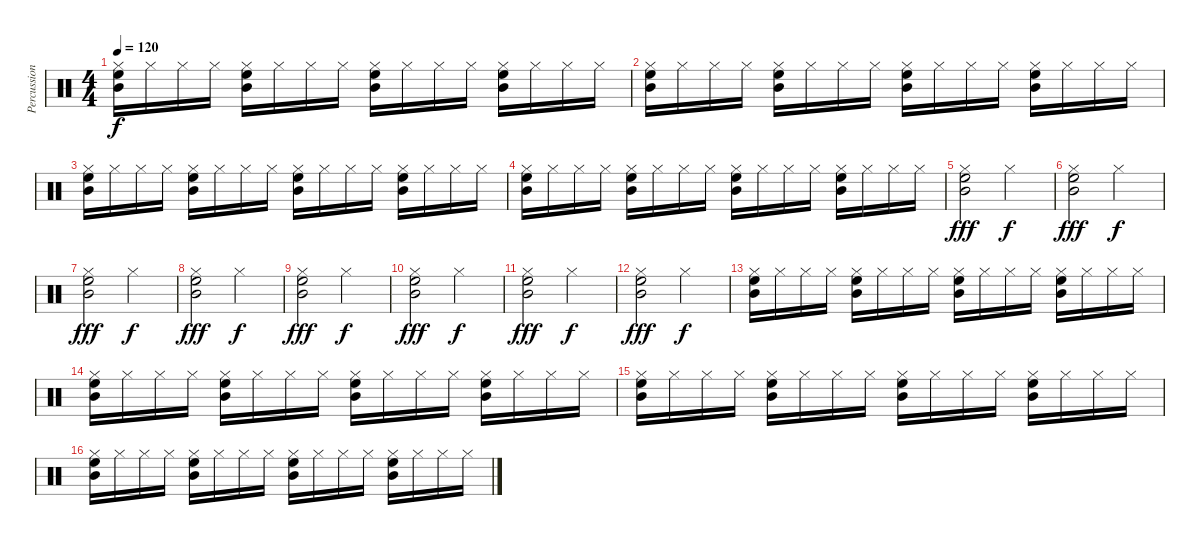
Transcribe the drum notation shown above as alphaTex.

\track ("Percussion" "Percussion") {instrument percussion}
\staff {score}
\articulation defaults
\ts (4 4)
\tempo 120
\clef neutral
\ks c
("Hi-Hat (closed)" "Mid Tom (hit)" "High Floor Tom (hit)").16{dy f} "Hi-Hat (closed)".16 "Hi-Hat (closed)".16 "Hi-Hat (closed)".16 ("Hi-Hat (closed)" "Mid Tom (hit)" "High Floor Tom (hit)").16 "Hi-Hat (closed)".16 "Hi-Hat (closed)".16 "Hi-Hat (closed)".16 ("Hi-Hat (closed)" "Mid Tom (hit)" "High Floor Tom (hit)").16 "Hi-Hat (closed)".16 "Hi-Hat (closed)".16 "Hi-Hat (closed)".16 ("Hi-Hat (closed)" "Mid Tom (hit)" "High Floor Tom (hit)").16 "Hi-Hat (closed)".16 "Hi-Hat (closed)".16 "Hi-Hat (closed)".16 |
("Hi-Hat (closed)" "Mid Tom (hit)" "High Floor Tom (hit)").16 "Hi-Hat (closed)".16 "Hi-Hat (closed)".16 "Hi-Hat (closed)".16 ("Hi-Hat (closed)" "Mid Tom (hit)" "High Floor Tom (hit)").16 "Hi-Hat (closed)".16 "Hi-Hat (closed)".16 "Hi-Hat (closed)".16 ("Hi-Hat (closed)" "Mid Tom (hit)" "High Floor Tom (hit)").16 "Hi-Hat (closed)".16 "Hi-Hat (closed)".16 "Hi-Hat (closed)".16 ("Hi-Hat (closed)" "Mid Tom (hit)" "High Floor Tom (hit)").16 "Hi-Hat (closed)".16 "Hi-Hat (closed)".16 "Hi-Hat (closed)".16 |
("Hi-Hat (closed)" "Mid Tom (hit)" "High Floor Tom (hit)").16 "Hi-Hat (closed)".16 "Hi-Hat (closed)".16 "Hi-Hat (closed)".16 ("Hi-Hat (closed)" "Mid Tom (hit)" "High Floor Tom (hit)").16 "Hi-Hat (closed)".16 "Hi-Hat (closed)".16 "Hi-Hat (closed)".16 ("Hi-Hat (closed)" "Mid Tom (hit)" "High Floor Tom (hit)").16 "Hi-Hat (closed)".16 "Hi-Hat (closed)".16 "Hi-Hat (closed)".16 ("Hi-Hat (closed)" "Mid Tom (hit)" "High Floor Tom (hit)").16 "Hi-Hat (closed)".16 "Hi-Hat (closed)".16 "Hi-Hat (closed)".16 |
("Hi-Hat (closed)" "Mid Tom (hit)" "High Floor Tom (hit)").16 "Hi-Hat (closed)".16 "Hi-Hat (closed)".16 "Hi-Hat (closed)".16 ("Hi-Hat (closed)" "Mid Tom (hit)" "High Floor Tom (hit)").16 "Hi-Hat (closed)".16 "Hi-Hat (closed)".16 "Hi-Hat (closed)".16 ("Hi-Hat (closed)" "Mid Tom (hit)" "High Floor Tom (hit)").16 "Hi-Hat (closed)".16 "Hi-Hat (closed)".16 "Hi-Hat (closed)".16 ("Hi-Hat (closed)" "Mid Tom (hit)" "High Floor Tom (hit)").16 "Hi-Hat (closed)".16 "Hi-Hat (closed)".16 "Hi-Hat (closed)".16 |
("Hi-Hat (closed)" "Mid Tom (hit)" "High Floor Tom (hit)").2{dy fff} "Hi-Hat (closed)".2{dy f} |
("Hi-Hat (closed)" "Mid Tom (hit)" "High Floor Tom (hit)").2{dy fff} "Hi-Hat (closed)".2{dy f} |
("Hi-Hat (closed)" "Mid Tom (hit)" "High Floor Tom (hit)").2{dy fff} "Hi-Hat (closed)".2{dy f} |
("Hi-Hat (closed)" "Mid Tom (hit)" "High Floor Tom (hit)").2{dy fff} "Hi-Hat (closed)".2{dy f} |
("Hi-Hat (closed)" "Mid Tom (hit)" "High Floor Tom (hit)").2{dy fff} "Hi-Hat (closed)".2{dy f} |
("Hi-Hat (closed)" "Mid Tom (hit)" "High Floor Tom (hit)").2{dy fff} "Hi-Hat (closed)".2{dy f} |
("Hi-Hat (closed)" "Mid Tom (hit)" "High Floor Tom (hit)").2{dy fff} "Hi-Hat (closed)".2{dy f} |
("Hi-Hat (closed)" "Mid Tom (hit)" "High Floor Tom (hit)").2{dy fff} "Hi-Hat (closed)".2{dy f} |
("Hi-Hat (closed)" "Mid Tom (hit)" "High Floor Tom (hit)").16 "Hi-Hat (closed)".16 "Hi-Hat (closed)".16 "Hi-Hat (closed)".16 ("Hi-Hat (closed)" "Mid Tom (hit)" "High Floor Tom (hit)").16 "Hi-Hat (closed)".16 "Hi-Hat (closed)".16 "Hi-Hat (closed)".16 ("Hi-Hat (closed)" "Mid Tom (hit)" "High Floor Tom (hit)").16 "Hi-Hat (closed)".16 "Hi-Hat (closed)".16 "Hi-Hat (closed)".16 ("Hi-Hat (closed)" "Mid Tom (hit)" "High Floor Tom (hit)").16 "Hi-Hat (closed)".16 "Hi-Hat (closed)".16 "Hi-Hat (closed)".16 |
("Hi-Hat (closed)" "Mid Tom (hit)" "High Floor Tom (hit)").16 "Hi-Hat (closed)".16 "Hi-Hat (closed)".16 "Hi-Hat (closed)".16 ("Hi-Hat (closed)" "Mid Tom (hit)" "High Floor Tom (hit)").16 "Hi-Hat (closed)".16 "Hi-Hat (closed)".16 "Hi-Hat (closed)".16 ("Hi-Hat (closed)" "Mid Tom (hit)" "High Floor Tom (hit)").16 "Hi-Hat (closed)".16 "Hi-Hat (closed)".16 "Hi-Hat (closed)".16 ("Hi-Hat (closed)" "Mid Tom (hit)" "High Floor Tom (hit)").16 "Hi-Hat (closed)".16 "Hi-Hat (closed)".16 "Hi-Hat (closed)".16 |
("Hi-Hat (closed)" "Mid Tom (hit)" "High Floor Tom (hit)").16 "Hi-Hat (closed)".16 "Hi-Hat (closed)".16 "Hi-Hat (closed)".16 ("Hi-Hat (closed)" "Mid Tom (hit)" "High Floor Tom (hit)").16 "Hi-Hat (closed)".16 "Hi-Hat (closed)".16 "Hi-Hat (closed)".16 ("Hi-Hat (closed)" "Mid Tom (hit)" "High Floor Tom (hit)").16 "Hi-Hat (closed)".16 "Hi-Hat (closed)".16 "Hi-Hat (closed)".16 ("Hi-Hat (closed)" "Mid Tom (hit)" "High Floor Tom (hit)").16 "Hi-Hat (closed)".16 "Hi-Hat (closed)".16 "Hi-Hat (closed)".16 |
("Hi-Hat (closed)" "Mid Tom (hit)" "High Floor Tom (hit)").16 "Hi-Hat (closed)".16 "Hi-Hat (closed)".16 "Hi-Hat (closed)".16 ("Hi-Hat (closed)" "Mid Tom (hit)" "High Floor Tom (hit)").16 "Hi-Hat (closed)".16 "Hi-Hat (closed)".16 "Hi-Hat (closed)".16 ("Hi-Hat (closed)" "Mid Tom (hit)" "High Floor Tom (hit)").16 "Hi-Hat (closed)".16 "Hi-Hat (closed)".16 "Hi-Hat (closed)".16 ("Hi-Hat (closed)" "Mid Tom (hit)" "High Floor Tom (hit)").16 "Hi-Hat (closed)".16 "Hi-Hat (closed)".16 "Hi-Hat (closed)".16
